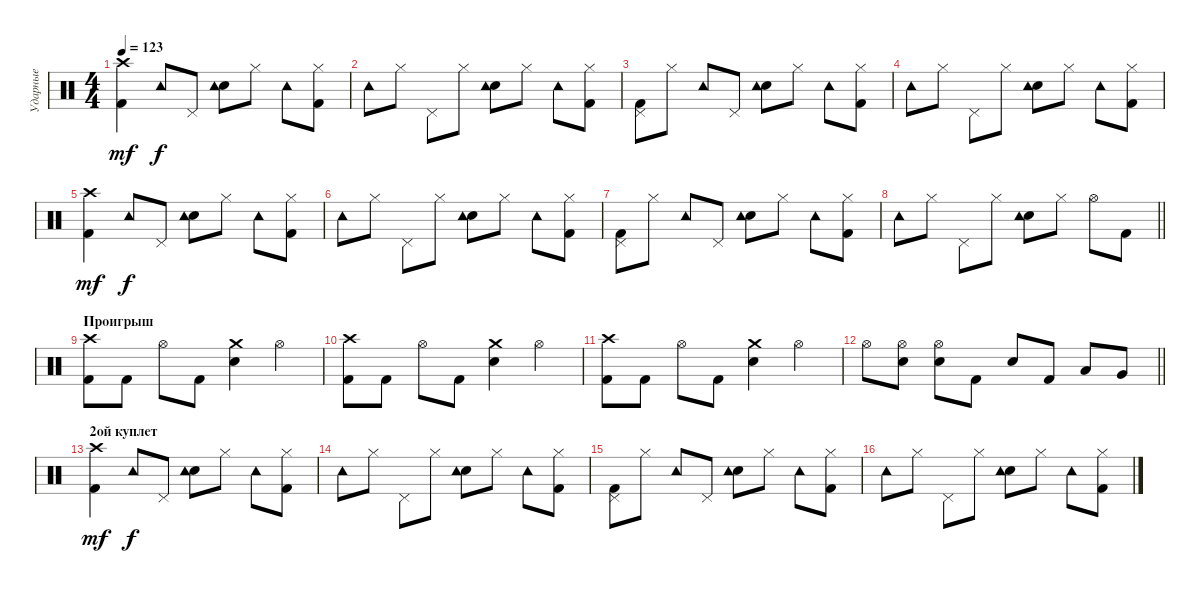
\track ("Ударные" "Ударные") {instrument percussion}
\staff {score}
\articulation defaults
\ts (4 4)
\tempo 123
\clef neutral
\ks c
("Kick (hit) 2" "Crash high (hit)").4{dy mf} "Tambourine (hit)".8{dy f} "Pedal Hi-Hat (hit)".8 ("Electric Snare (hit)" "Tambourine (hit)").8 "Hi-Hat (closed)".8 "Tambourine (hit)".8 ("Kick (hit) 2" "Hi-Hat (closed)").8 |
"Tambourine (hit)".8 "Hi-Hat (closed)".8 "Pedal Hi-Hat (hit)".8 "Hi-Hat (closed)".8 ("Snare (hit) 2" "Tambourine (hit)").8 "Hi-Hat (closed)".8 "Tambourine (hit)".8 ("Kick (hit) 2" "Hi-Hat (closed)").8 |
("Kick (hit) 2" "Pedal Hi-Hat (hit)").8 "Hi-Hat (closed)".8 "Tambourine (hit)".8 "Pedal Hi-Hat (hit)".8 ("Electric Snare (hit)" "Tambourine (hit)").8 "Hi-Hat (closed)".8 "Tambourine (hit)".8 ("Kick (hit) 2" "Hi-Hat (closed)").8 |
"Tambourine (hit)".8 "Hi-Hat (closed)".8 "Pedal Hi-Hat (hit)".8 "Hi-Hat (closed)".8 ("Snare (hit) 2" "Tambourine (hit)").8 "Hi-Hat (closed)".8 "Tambourine (hit)".8 ("Kick (hit) 2" "Hi-Hat (closed)").8 |
("Kick (hit) 2" "Crash high (hit)").4{dy mf} "Tambourine (hit)".8{dy f} "Pedal Hi-Hat (hit)".8 ("Electric Snare (hit)" "Tambourine (hit)").8 "Hi-Hat (closed)".8 "Tambourine (hit)".8 ("Kick (hit) 2" "Hi-Hat (closed)").8 |
"Tambourine (hit)".8 "Hi-Hat (closed)".8 "Pedal Hi-Hat (hit)".8 "Hi-Hat (closed)".8 ("Snare (hit) 2" "Tambourine (hit)").8 "Hi-Hat (closed)".8 "Tambourine (hit)".8 ("Kick (hit) 2" "Hi-Hat (closed)").8 |
("Kick (hit) 2" "Pedal Hi-Hat (hit)").8 "Hi-Hat (closed)".8 "Tambourine (hit)".8 "Pedal Hi-Hat (hit)".8 ("Electric Snare (hit)" "Tambourine (hit)").8 "Hi-Hat (closed)".8 "Tambourine (hit)".8 ("Kick (hit) 2" "Hi-Hat (closed)").8 |
\barLineRight lightlight "Tambourine (hit)".8 "Hi-Hat (closed)".8 "Pedal Hi-Hat (hit)".8 "Hi-Hat (closed)".8
("Snare (hit) 2" "Tambourine (hit)").8 "Hi-Hat (closed)".8 "Hi-Hat (open)".8 "Kick (hit) 2".8 |
\section ("" "Проигрыш")
("Kick (hit) 2" "Crash high (hit)").8 "Kick (hit) 2".8 "Hi-Hat (open)".8 "Kick (hit) 2".8 ("Electric Snare (hit)" "Crash medium (hit)").4 "Hi-Hat (open)".4 |
("Kick (hit) 2" "Crash high (hit)").8 "Kick (hit) 2".8 "Hi-Hat (open)".8 "Kick (hit) 2".8 ("Electric Snare (hit)" "Crash medium (hit)").4 "Hi-Hat (open)".4 |
("Kick (hit) 2" "Crash high (hit)").8 "Kick (hit) 2".8 "Hi-Hat (open)".8 "Kick (hit) 2".8 ("Electric Snare (hit)" "Crash medium (hit)").4 "Hi-Hat (open)".4 |
\barLineRight lightlight "Hi-Hat (open)".8
("Electric Snare (hit)" "Hi-Hat (open)").8 ("Electric Snare (hit)" "Hi-Hat (open)").8 "Kick (hit) 2".8 "Electric Snare (hit)".8 "Kick (hit) 2".8 "Low Tom (hit)".8 "Very Low Tom (hit)".8 |
\section ("" "2ой куплет")
("Kick (hit) 2" "Crash high (hit)").4{dy mf} "Tambourine (hit)".8{dy f} "Pedal Hi-Hat (hit)".8 ("Electric Snare (hit)" "Tambourine (hit)").8 "Hi-Hat (closed)".8 "Tambourine (hit)".8 ("Kick (hit) 2" "Hi-Hat (closed)").8 |
"Tambourine (hit)".8 "Hi-Hat (closed)".8 "Pedal Hi-Hat (hit)".8 "Hi-Hat (closed)".8 ("Snare (hit) 2" "Tambourine (hit)").8 "Hi-Hat (closed)".8 "Tambourine (hit)".8 ("Kick (hit) 2" "Hi-Hat (closed)").8 |
("Kick (hit) 2" "Pedal Hi-Hat (hit)").8 "Hi-Hat (closed)".8 "Tambourine (hit)".8 "Pedal Hi-Hat (hit)".8 ("Electric Snare (hit)" "Tambourine (hit)").8 "Hi-Hat (closed)".8 "Tambourine (hit)".8 ("Kick (hit) 2" "Hi-Hat (closed)").8 |
"Tambourine (hit)".8 "Hi-Hat (closed)".8 "Pedal Hi-Hat (hit)".8 "Hi-Hat (closed)".8 ("Snare (hit) 2" "Tambourine (hit)").8 "Hi-Hat (closed)".8 "Tambourine (hit)".8 ("Kick (hit) 2" "Hi-Hat (closed)").8
